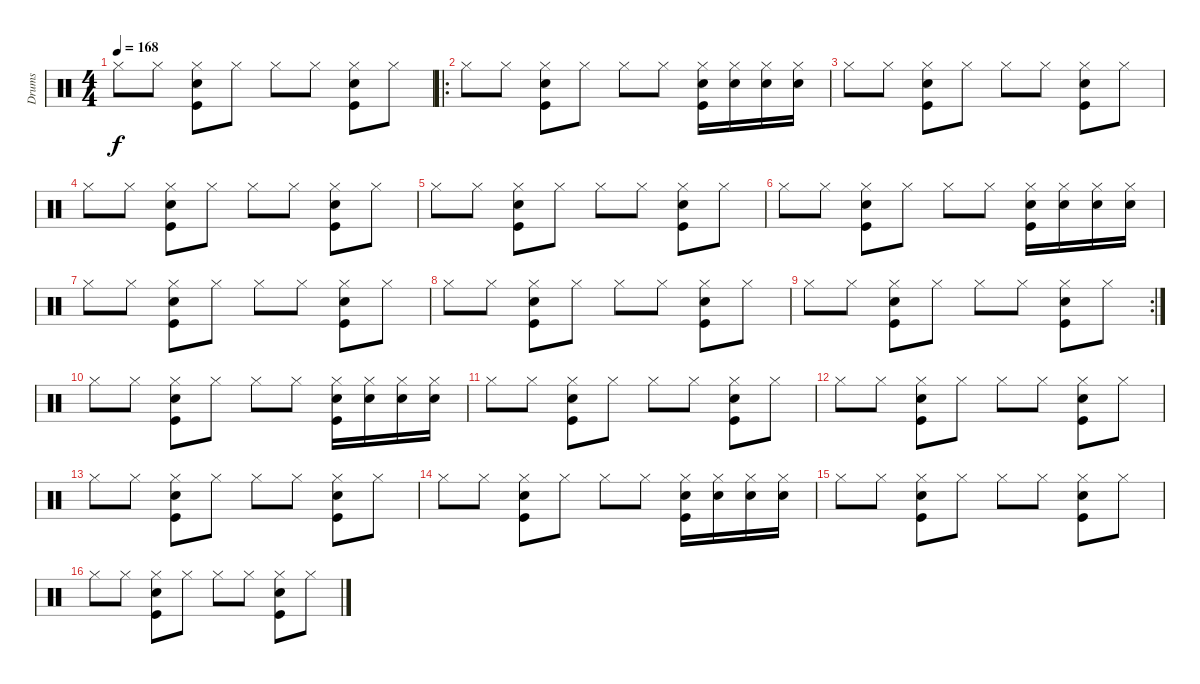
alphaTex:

\track ("Drums" "Drums") {instrument percussion}
\staff {score}
\articulation defaults
\ts (4 4)
\tempo 168
\clef neutral
\ks c "Hi-Hat (closed)".8{dy f} "Hi-Hat (closed)".8
("Snare (hit) 2" "Kick (hit)" "Hi-Hat (closed)").8 "Hi-Hat (closed)".8 "Hi-Hat (closed)".8 "Hi-Hat (closed)".8 ("Snare (hit) 2" "Kick (hit)" "Hi-Hat (closed)").8 "Hi-Hat (closed)".8 |
\ro "Hi-Hat (closed)".8 "Hi-Hat (closed)".8
("Snare (hit) 2" "Kick (hit)" "Hi-Hat (closed)").8 "Hi-Hat (closed)".8 "Hi-Hat (closed)".8 "Hi-Hat (closed)".8 ("Snare (hit) 2" "Kick (hit)" "Hi-Hat (closed)").16 ("Hi-Hat (closed)" "Snare (hit) 2").16 ("Hi-Hat (closed)" "Snare (hit) 2").16 ("Snare (hit) 2" "Hi-Hat (closed)").16 |
"Hi-Hat (closed)".8 "Hi-Hat (closed)".8 ("Snare (hit) 2" "Kick (hit)" "Hi-Hat (closed)").8 "Hi-Hat (closed)".8 "Hi-Hat (closed)".8 "Hi-Hat (closed)".8 ("Snare (hit) 2" "Kick (hit)" "Hi-Hat (closed)").8 "Hi-Hat (closed)".8 |
"Hi-Hat (closed)".8 "Hi-Hat (closed)".8 ("Snare (hit) 2" "Kick (hit)" "Hi-Hat (closed)").8 "Hi-Hat (closed)".8 "Hi-Hat (closed)".8 "Hi-Hat (closed)".8 ("Snare (hit) 2" "Kick (hit)" "Hi-Hat (closed)").8 "Hi-Hat (closed)".8 |
"Hi-Hat (closed)".8 "Hi-Hat (closed)".8 ("Snare (hit) 2" "Kick (hit)" "Hi-Hat (closed)").8 "Hi-Hat (closed)".8 "Hi-Hat (closed)".8 "Hi-Hat (closed)".8 ("Snare (hit) 2" "Kick (hit)" "Hi-Hat (closed)").8 "Hi-Hat (closed)".8 |
"Hi-Hat (closed)".8 "Hi-Hat (closed)".8 ("Snare (hit) 2" "Kick (hit)" "Hi-Hat (closed)").8 "Hi-Hat (closed)".8 "Hi-Hat (closed)".8 "Hi-Hat (closed)".8 ("Snare (hit) 2" "Kick (hit)" "Hi-Hat (closed)").16 ("Hi-Hat (closed)" "Snare (hit) 2").16 ("Hi-Hat (closed)" "Snare (hit) 2").16 ("Snare (hit) 2" "Hi-Hat (closed)").16 |
"Hi-Hat (closed)".8 "Hi-Hat (closed)".8 ("Snare (hit) 2" "Kick (hit)" "Hi-Hat (closed)").8 "Hi-Hat (closed)".8 "Hi-Hat (closed)".8 "Hi-Hat (closed)".8 ("Snare (hit) 2" "Kick (hit)" "Hi-Hat (closed)").8 "Hi-Hat (closed)".8 |
"Hi-Hat (closed)".8 "Hi-Hat (closed)".8 ("Snare (hit) 2" "Kick (hit)" "Hi-Hat (closed)").8 "Hi-Hat (closed)".8 "Hi-Hat (closed)".8 "Hi-Hat (closed)".8 ("Snare (hit) 2" "Kick (hit)" "Hi-Hat (closed)").8 "Hi-Hat (closed)".8 |
\rc 2 "Hi-Hat (closed)".8 "Hi-Hat (closed)".8
("Snare (hit) 2" "Kick (hit)" "Hi-Hat (closed)").8 "Hi-Hat (closed)".8 "Hi-Hat (closed)".8 "Hi-Hat (closed)".8 ("Snare (hit) 2" "Kick (hit)" "Hi-Hat (closed)").8 "Hi-Hat (closed)".8 |
"Hi-Hat (closed)".8 "Hi-Hat (closed)".8 ("Snare (hit) 2" "Kick (hit)" "Hi-Hat (closed)").8 "Hi-Hat (closed)".8 "Hi-Hat (closed)".8 "Hi-Hat (closed)".8 ("Snare (hit) 2" "Kick (hit)" "Hi-Hat (closed)").16 ("Hi-Hat (closed)" "Snare (hit) 2").16 ("Hi-Hat (closed)" "Snare (hit) 2").16 ("Snare (hit) 2" "Hi-Hat (closed)").16 |
"Hi-Hat (closed)".8 "Hi-Hat (closed)".8 ("Snare (hit) 2" "Kick (hit)" "Hi-Hat (closed)").8 "Hi-Hat (closed)".8 "Hi-Hat (closed)".8 "Hi-Hat (closed)".8 ("Snare (hit) 2" "Kick (hit)" "Hi-Hat (closed)").8 "Hi-Hat (closed)".8 |
"Hi-Hat (closed)".8 "Hi-Hat (closed)".8 ("Snare (hit) 2" "Kick (hit)" "Hi-Hat (closed)").8 "Hi-Hat (closed)".8 "Hi-Hat (closed)".8 "Hi-Hat (closed)".8 ("Snare (hit) 2" "Kick (hit)" "Hi-Hat (closed)").8 "Hi-Hat (closed)".8 |
"Hi-Hat (closed)".8 "Hi-Hat (closed)".8 ("Snare (hit) 2" "Kick (hit)" "Hi-Hat (closed)").8 "Hi-Hat (closed)".8 "Hi-Hat (closed)".8 "Hi-Hat (closed)".8 ("Snare (hit) 2" "Kick (hit)" "Hi-Hat (closed)").8 "Hi-Hat (closed)".8 |
"Hi-Hat (closed)".8 "Hi-Hat (closed)".8 ("Snare (hit) 2" "Kick (hit)" "Hi-Hat (closed)").8 "Hi-Hat (closed)".8 "Hi-Hat (closed)".8 "Hi-Hat (closed)".8 ("Snare (hit) 2" "Kick (hit)" "Hi-Hat (closed)").16 ("Hi-Hat (closed)" "Snare (hit) 2").16 ("Hi-Hat (closed)" "Snare (hit) 2").16 ("Snare (hit) 2" "Hi-Hat (closed)").16 |
"Hi-Hat (closed)".8 "Hi-Hat (closed)".8 ("Snare (hit) 2" "Kick (hit)" "Hi-Hat (closed)").8 "Hi-Hat (closed)".8 "Hi-Hat (closed)".8 "Hi-Hat (closed)".8 ("Snare (hit) 2" "Kick (hit)" "Hi-Hat (closed)").8 "Hi-Hat (closed)".8 |
"Hi-Hat (closed)".8 "Hi-Hat (closed)".8 ("Snare (hit) 2" "Kick (hit)" "Hi-Hat (closed)").8 "Hi-Hat (closed)".8 "Hi-Hat (closed)".8 "Hi-Hat (closed)".8 ("Snare (hit) 2" "Kick (hit)" "Hi-Hat (closed)").8 "Hi-Hat (closed)".8
